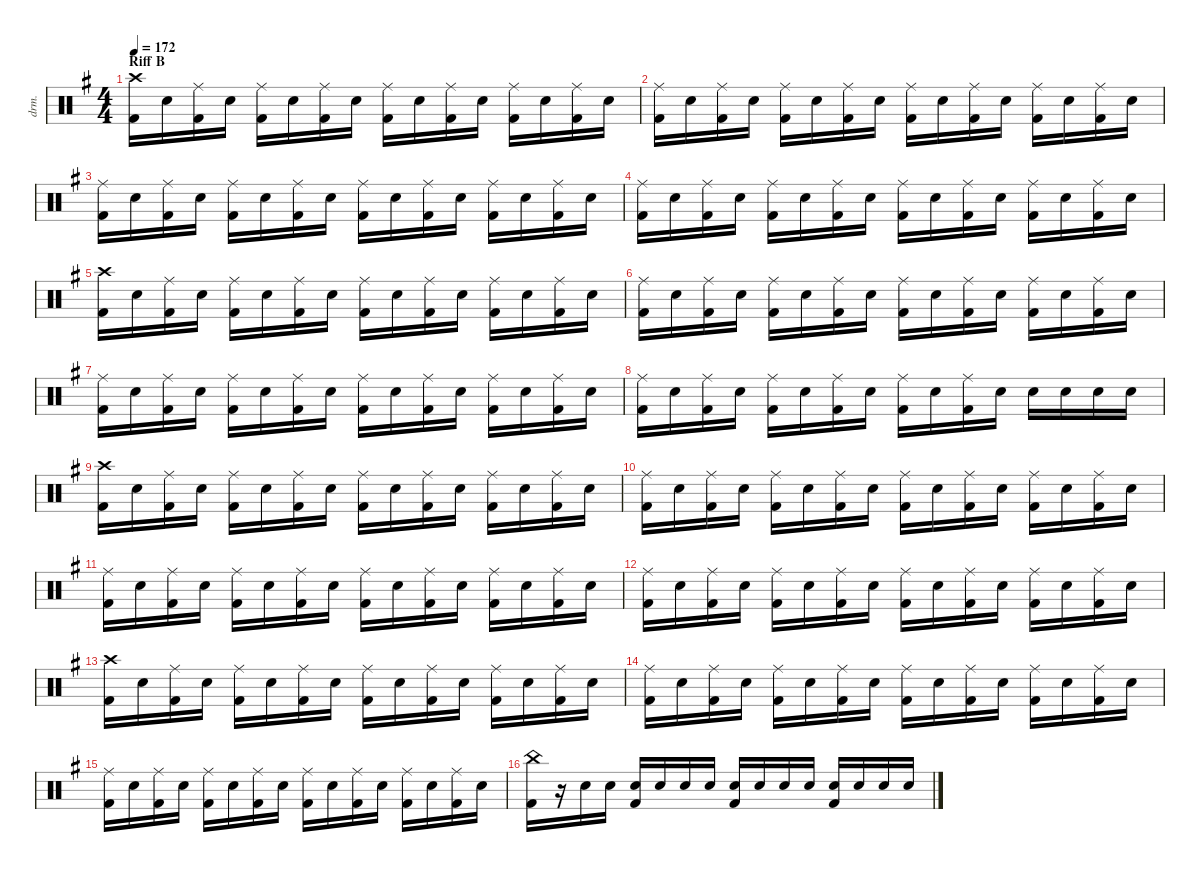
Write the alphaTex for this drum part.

\defaultSystemsLayout 4
\hideDynamics
\bracketExtendMode nobrackets
\otherSystemsTrackNameOrientation horizontal
\track ("Shinya" "drm.") {instrument percussion}
\staff {score}
\articulation defaults
\ts (4 4)
\section ("" "Riff B")
\tempo 172
\clef neutral
\ks eminor
("Kick (hit) 2"{acc forcenatural} "Crash high (hit)"{acc #}).16{dy fff beam Down} "Snare (hit) 2"{acc forcenatural}.16{beam Down} ("Kick (hit) 2"{acc forcenatural} "Ride (middle)"{acc #}).16{beam Down} "Snare (hit) 2"{acc forcenatural}.16{beam Down} ("Kick (hit) 2"{acc forcenatural} "Ride (middle)"{acc #}).16{beam Down} "Snare (hit) 2"{acc forcenatural}.16{beam Down} ("Kick (hit) 2"{acc forcenatural} "Ride (middle)"{acc #}).16{beam Down} "Snare (hit) 2"{acc forcenatural}.16{beam Down} ("Kick (hit) 2"{acc forcenatural} "Ride (middle)"{acc #}).16{beam Down} "Snare (hit) 2"{acc forcenatural}.16{beam Down} ("Kick (hit) 2"{acc forcenatural} "Ride (middle)"{acc #}).16{beam Down} "Snare (hit) 2"{acc forcenatural}.16{beam Down} ("Kick (hit) 2"{acc forcenatural} "Ride (middle)"{acc #}).16{beam Down} "Snare (hit) 2"{acc forcenatural}.16{beam Down} ("Kick (hit) 2"{acc forcenatural} "Ride (middle)"{acc #}).16{beam Down} "Snare (hit) 2"{acc forcenatural}.16{beam Down} |
("Kick (hit) 2"{acc forcenatural} "Ride (middle)"{acc #}).16{beam Down} "Snare (hit) 2"{acc forcenatural}.16{beam Down} ("Kick (hit) 2"{acc forcenatural} "Ride (middle)"{acc #}).16{beam Down} "Snare (hit) 2"{acc forcenatural}.16{beam Down} ("Kick (hit) 2"{acc forcenatural} "Ride (middle)"{acc #}).16{beam Down} "Snare (hit) 2"{acc forcenatural}.16{beam Down} ("Kick (hit) 2"{acc forcenatural} "Ride (middle)"{acc #}).16{beam Down} "Snare (hit) 2"{acc forcenatural}.16{beam Down} ("Kick (hit) 2"{acc forcenatural} "Ride (middle)"{acc #}).16{beam Down} "Snare (hit) 2"{acc forcenatural}.16{beam Down} ("Kick (hit) 2"{acc forcenatural} "Ride (middle)"{acc #}).16{beam Down} "Snare (hit) 2"{acc forcenatural}.16{beam Down} ("Kick (hit) 2"{acc forcenatural} "Ride (middle)"{acc #}).16{beam Down} "Snare (hit) 2"{acc forcenatural}.16{beam Down} ("Kick (hit) 2"{acc forcenatural} "Ride (middle)"{acc #}).16{beam Down} "Snare (hit) 2"{acc forcenatural}.16{beam Down} |
("Kick (hit) 2"{acc forcenatural} "Ride (middle)"{acc #}).16{beam Down} "Snare (hit) 2"{acc forcenatural}.16{beam Down} ("Kick (hit) 2"{acc forcenatural} "Ride (middle)"{acc #}).16{beam Down} "Snare (hit) 2"{acc forcenatural}.16{beam Down} ("Kick (hit) 2"{acc forcenatural} "Ride (middle)"{acc #}).16{beam Down} "Snare (hit) 2"{acc forcenatural}.16{beam Down} ("Kick (hit) 2"{acc forcenatural} "Ride (middle)"{acc #}).16{beam Down} "Snare (hit) 2"{acc forcenatural}.16{beam Down} ("Kick (hit) 2"{acc forcenatural} "Ride (middle)"{acc #}).16{beam Down} "Snare (hit) 2"{acc forcenatural}.16{beam Down} ("Kick (hit) 2"{acc forcenatural} "Ride (middle)"{acc #}).16{beam Down} "Snare (hit) 2"{acc forcenatural}.16{beam Down} ("Kick (hit) 2"{acc forcenatural} "Ride (middle)"{acc #}).16{beam Down} "Snare (hit) 2"{acc forcenatural}.16{beam Down} ("Kick (hit) 2"{acc forcenatural} "Ride (middle)"{acc #}).16{beam Down} "Snare (hit) 2"{acc forcenatural}.16{beam Down} |
("Kick (hit) 2"{acc forcenatural} "Ride (middle)"{acc #}).16{beam Down} "Snare (hit) 2"{acc forcenatural}.16{beam Down} ("Kick (hit) 2"{acc forcenatural} "Ride (middle)"{acc #}).16{beam Down} "Snare (hit) 2"{acc forcenatural}.16{beam Down} ("Kick (hit) 2"{acc forcenatural} "Ride (middle)"{acc #}).16{beam Down} "Snare (hit) 2"{acc forcenatural}.16{beam Down} ("Kick (hit) 2"{acc forcenatural} "Ride (middle)"{acc #}).16{beam Down} "Snare (hit) 2"{acc forcenatural}.16{beam Down} ("Kick (hit) 2"{acc forcenatural} "Ride (middle)"{acc #}).16{beam Down} "Snare (hit) 2"{acc forcenatural}.16{beam Down} ("Kick (hit) 2"{acc forcenatural} "Ride (middle)"{acc #}).16{beam Down} "Snare (hit) 2"{acc forcenatural}.16{beam Down} ("Kick (hit) 2"{acc forcenatural} "Ride (middle)"{acc #}).16{beam Down} "Snare (hit) 2"{acc forcenatural}.16{beam Down} ("Kick (hit) 2"{acc forcenatural} "Ride (middle)"{acc #}).16{beam Down} "Snare (hit) 2"{acc forcenatural}.16{beam Down} |
("Kick (hit) 2"{acc forcenatural} "Crash high (hit)"{acc #}).16{beam Down} "Snare (hit) 2"{acc forcenatural}.16{beam Down} ("Kick (hit) 2"{acc forcenatural} "Ride (middle)"{acc #}).16{beam Down} "Snare (hit) 2"{acc forcenatural}.16{beam Down} ("Kick (hit) 2"{acc forcenatural} "Ride (middle)"{acc #}).16{beam Down} "Snare (hit) 2"{acc forcenatural}.16{beam Down} ("Kick (hit) 2"{acc forcenatural} "Ride (middle)"{acc #}).16{beam Down} "Snare (hit) 2"{acc forcenatural}.16{beam Down} ("Kick (hit) 2"{acc forcenatural} "Ride (middle)"{acc #}).16{beam Down} "Snare (hit) 2"{acc forcenatural}.16{beam Down} ("Kick (hit) 2"{acc forcenatural} "Ride (middle)"{acc #}).16{beam Down} "Snare (hit) 2"{acc forcenatural}.16{beam Down} ("Kick (hit) 2"{acc forcenatural} "Ride (middle)"{acc #}).16{beam Down} "Snare (hit) 2"{acc forcenatural}.16{beam Down} ("Kick (hit) 2"{acc forcenatural} "Ride (middle)"{acc #}).16{beam Down} "Snare (hit) 2"{acc forcenatural}.16{beam Down} |
("Kick (hit) 2"{acc forcenatural} "Ride (middle)"{acc #}).16{beam Down} "Snare (hit) 2"{acc forcenatural}.16{beam Down} ("Kick (hit) 2"{acc forcenatural} "Ride (middle)"{acc #}).16{beam Down} "Snare (hit) 2"{acc forcenatural}.16{beam Down} ("Kick (hit) 2"{acc forcenatural} "Ride (middle)"{acc #}).16{beam Down} "Snare (hit) 2"{acc forcenatural}.16{beam Down} ("Kick (hit) 2"{acc forcenatural} "Ride (middle)"{acc #}).16{beam Down} "Snare (hit) 2"{acc forcenatural}.16{beam Down} ("Kick (hit) 2"{acc forcenatural} "Ride (middle)"{acc #}).16{beam Down} "Snare (hit) 2"{acc forcenatural}.16{beam Down} ("Kick (hit) 2"{acc forcenatural} "Ride (middle)"{acc #}).16{beam Down} "Snare (hit) 2"{acc forcenatural}.16{beam Down} ("Kick (hit) 2"{acc forcenatural} "Ride (middle)"{acc #}).16{beam Down} "Snare (hit) 2"{acc forcenatural}.16{beam Down} ("Kick (hit) 2"{acc forcenatural} "Ride (middle)"{acc #}).16{beam Down} "Snare (hit) 2"{acc forcenatural}.16{beam Down} |
("Kick (hit) 2"{acc forcenatural} "Ride (middle)"{acc #}).16{beam Down} "Snare (hit) 2"{acc forcenatural}.16{beam Down} ("Kick (hit) 2"{acc forcenatural} "Ride (middle)"{acc #}).16{beam Down} "Snare (hit) 2"{acc forcenatural}.16{beam Down} ("Kick (hit) 2"{acc forcenatural} "Ride (middle)"{acc #}).16{beam Down} "Snare (hit) 2"{acc forcenatural}.16{beam Down} ("Kick (hit) 2"{acc forcenatural} "Ride (middle)"{acc #}).16{beam Down} "Snare (hit) 2"{acc forcenatural}.16{beam Down} ("Kick (hit) 2"{acc forcenatural} "Ride (middle)"{acc #}).16{beam Down} "Snare (hit) 2"{acc forcenatural}.16{beam Down} ("Kick (hit) 2"{acc forcenatural} "Ride (middle)"{acc #}).16{beam Down} "Snare (hit) 2"{acc forcenatural}.16{beam Down} ("Kick (hit) 2"{acc forcenatural} "Ride (middle)"{acc #}).16{beam Down} "Snare (hit) 2"{acc forcenatural}.16{beam Down} ("Kick (hit) 2"{acc forcenatural} "Ride (middle)"{acc #}).16{beam Down} "Snare (hit) 2"{acc forcenatural}.16{beam Down} |
("Kick (hit) 2"{acc forcenatural} "Ride (middle)"{acc #}).16{beam Down} "Snare (hit) 2"{acc forcenatural}.16{beam Down} ("Kick (hit) 2"{acc forcenatural} "Ride (middle)"{acc #}).16{beam Down} "Snare (hit) 2"{acc forcenatural}.16{beam Down} ("Kick (hit) 2"{acc forcenatural} "Ride (middle)"{acc #}).16{beam Down} "Snare (hit) 2"{acc forcenatural}.16{beam Down} ("Kick (hit) 2"{acc forcenatural} "Ride (middle)"{acc #}).16{beam Down} "Snare (hit) 2"{acc forcenatural}.16{beam Down} ("Kick (hit) 2"{acc forcenatural} "Ride (middle)"{acc #}).16{beam Down} "Snare (hit) 2"{acc forcenatural}.16{beam Down} ("Kick (hit) 2"{acc forcenatural} "Ride (middle)"{acc #}).16{beam Down} "Snare (hit) 2"{acc forcenatural}.16{beam Down} "Snare (hit) 2"{acc forcenatural}.16{beam Down} "Snare (hit) 2"{acc forcenatural}.16{beam Down} "Snare (hit) 2"{acc forcenatural}.16{beam Down} "Snare (hit) 2"{acc forcenatural}.16{beam Down} |
("Kick (hit) 2"{acc forcenatural} "Crash high (hit)"{acc #}).16{beam Down} "Snare (hit) 2"{acc forcenatural}.16{beam Down} ("Kick (hit) 2"{acc forcenatural} "Ride (middle)"{acc #}).16{beam Down} "Snare (hit) 2"{acc forcenatural}.16{beam Down} ("Kick (hit) 2"{acc forcenatural} "Ride (middle)"{acc #}).16{beam Down} "Snare (hit) 2"{acc forcenatural}.16{beam Down} ("Kick (hit) 2"{acc forcenatural} "Ride (middle)"{acc #}).16{beam Down} "Snare (hit) 2"{acc forcenatural}.16{beam Down} ("Kick (hit) 2"{acc forcenatural} "Ride (middle)"{acc #}).16{beam Down} "Snare (hit) 2"{acc forcenatural}.16{beam Down} ("Kick (hit) 2"{acc forcenatural} "Ride (middle)"{acc #}).16{beam Down} "Snare (hit) 2"{acc forcenatural}.16{beam Down} ("Kick (hit) 2"{acc forcenatural} "Ride (middle)"{acc #}).16{beam Down} "Snare (hit) 2"{acc forcenatural}.16{beam Down} ("Kick (hit) 2"{acc forcenatural} "Ride (middle)"{acc #}).16{beam Down} "Snare (hit) 2"{acc forcenatural}.16{beam Down} |
("Kick (hit) 2"{acc forcenatural} "Ride (middle)"{acc #}).16{beam Down} "Snare (hit) 2"{acc forcenatural}.16{beam Down} ("Kick (hit) 2"{acc forcenatural} "Ride (middle)"{acc #}).16{beam Down} "Snare (hit) 2"{acc forcenatural}.16{beam Down} ("Kick (hit) 2"{acc forcenatural} "Ride (middle)"{acc #}).16{beam Down} "Snare (hit) 2"{acc forcenatural}.16{beam Down} ("Kick (hit) 2"{acc forcenatural} "Ride (middle)"{acc #}).16{beam Down} "Snare (hit) 2"{acc forcenatural}.16{beam Down} ("Kick (hit) 2"{acc forcenatural} "Ride (middle)"{acc #}).16{beam Down} "Snare (hit) 2"{acc forcenatural}.16{beam Down} ("Kick (hit) 2"{acc forcenatural} "Ride (middle)"{acc #}).16{beam Down} "Snare (hit) 2"{acc forcenatural}.16{beam Down} ("Kick (hit) 2"{acc forcenatural} "Ride (middle)"{acc #}).16{beam Down} "Snare (hit) 2"{acc forcenatural}.16{beam Down} ("Kick (hit) 2"{acc forcenatural} "Ride (middle)"{acc #}).16{beam Down} "Snare (hit) 2"{acc forcenatural}.16{beam Down} |
("Kick (hit) 2"{acc forcenatural} "Ride (middle)"{acc #}).16{beam Down} "Snare (hit) 2"{acc forcenatural}.16{beam Down} ("Kick (hit) 2"{acc forcenatural} "Ride (middle)"{acc #}).16{beam Down} "Snare (hit) 2"{acc forcenatural}.16{beam Down} ("Kick (hit) 2"{acc forcenatural} "Ride (middle)"{acc #}).16{beam Down} "Snare (hit) 2"{acc forcenatural}.16{beam Down} ("Kick (hit) 2"{acc forcenatural} "Ride (middle)"{acc #}).16{beam Down} "Snare (hit) 2"{acc forcenatural}.16{beam Down} ("Kick (hit) 2"{acc forcenatural} "Ride (middle)"{acc #}).16{beam Down} "Snare (hit) 2"{acc forcenatural}.16{beam Down} ("Kick (hit) 2"{acc forcenatural} "Ride (middle)"{acc #}).16{beam Down} "Snare (hit) 2"{acc forcenatural}.16{beam Down} ("Kick (hit) 2"{acc forcenatural} "Ride (middle)"{acc #}).16{beam Down} "Snare (hit) 2"{acc forcenatural}.16{beam Down} ("Kick (hit) 2"{acc forcenatural} "Ride (middle)"{acc #}).16{beam Down} "Snare (hit) 2"{acc forcenatural}.16{beam Down} |
("Kick (hit) 2"{acc forcenatural} "Ride (middle)"{acc #}).16{beam Down} "Snare (hit) 2"{acc forcenatural}.16{beam Down} ("Kick (hit) 2"{acc forcenatural} "Ride (middle)"{acc #}).16{beam Down} "Snare (hit) 2"{acc forcenatural}.16{beam Down} ("Kick (hit) 2"{acc forcenatural} "Ride (middle)"{acc #}).16{beam Down} "Snare (hit) 2"{acc forcenatural}.16{beam Down} ("Kick (hit) 2"{acc forcenatural} "Ride (middle)"{acc #}).16{beam Down} "Snare (hit) 2"{acc forcenatural}.16{beam Down} ("Kick (hit) 2"{acc forcenatural} "Ride (middle)"{acc #}).16{beam Down} "Snare (hit) 2"{acc forcenatural}.16{beam Down} ("Kick (hit) 2"{acc forcenatural} "Ride (middle)"{acc #}).16{beam Down} "Snare (hit) 2"{acc forcenatural}.16{beam Down} ("Kick (hit) 2"{acc forcenatural} "Ride (middle)"{acc #}).16{beam Down} "Snare (hit) 2"{acc forcenatural}.16{beam Down} ("Kick (hit) 2"{acc forcenatural} "Ride (middle)"{acc #}).16{beam Down} "Snare (hit) 2"{acc forcenatural}.16{beam Down} |
("Kick (hit) 2"{acc forcenatural} "Crash high (hit)"{acc #}).16{beam Down} "Snare (hit) 2"{acc forcenatural}.16{beam Down} ("Kick (hit) 2"{acc forcenatural} "Ride (middle)"{acc #}).16{beam Down} "Snare (hit) 2"{acc forcenatural}.16{beam Down} ("Kick (hit) 2"{acc forcenatural} "Ride (middle)"{acc #}).16{beam Down} "Snare (hit) 2"{acc forcenatural}.16{beam Down} ("Kick (hit) 2"{acc forcenatural} "Ride (middle)"{acc #}).16{beam Down} "Snare (hit) 2"{acc forcenatural}.16{beam Down} ("Kick (hit) 2"{acc forcenatural} "Ride (middle)"{acc #}).16{beam Down} "Snare (hit) 2"{acc forcenatural}.16{beam Down} ("Kick (hit) 2"{acc forcenatural} "Ride (middle)"{acc #}).16{beam Down} "Snare (hit) 2"{acc forcenatural}.16{beam Down} ("Kick (hit) 2"{acc forcenatural} "Ride (middle)"{acc #}).16{beam Down} "Snare (hit) 2"{acc forcenatural}.16{beam Down} ("Kick (hit) 2"{acc forcenatural} "Ride (middle)"{acc #}).16{beam Down} "Snare (hit) 2"{acc forcenatural}.16{beam Down} |
("Kick (hit) 2"{acc forcenatural} "Ride (middle)"{acc #}).16{beam Down} "Snare (hit) 2"{acc forcenatural}.16{beam Down} ("Kick (hit) 2"{acc forcenatural} "Ride (middle)"{acc #}).16{beam Down} "Snare (hit) 2"{acc forcenatural}.16{beam Down} ("Kick (hit) 2"{acc forcenatural} "Ride (middle)"{acc #}).16{beam Down} "Snare (hit) 2"{acc forcenatural}.16{beam Down} ("Kick (hit) 2"{acc forcenatural} "Ride (middle)"{acc #}).16{beam Down} "Snare (hit) 2"{acc forcenatural}.16{beam Down} ("Kick (hit) 2"{acc forcenatural} "Ride (middle)"{acc #}).16{beam Down} "Snare (hit) 2"{acc forcenatural}.16{beam Down} ("Kick (hit) 2"{acc forcenatural} "Ride (middle)"{acc #}).16{beam Down} "Snare (hit) 2"{acc forcenatural}.16{beam Down} ("Kick (hit) 2"{acc forcenatural} "Ride (middle)"{acc #}).16{beam Down} "Snare (hit) 2"{acc forcenatural}.16{beam Down} ("Kick (hit) 2"{acc forcenatural} "Ride (middle)"{acc #}).16{beam Down} "Snare (hit) 2"{acc forcenatural}.16{beam Down} |
("Kick (hit) 2"{acc forcenatural} "Ride (middle)"{acc #}).16{beam Down} "Snare (hit) 2"{acc forcenatural}.16{beam Down} ("Kick (hit) 2"{acc forcenatural} "Ride (middle)"{acc #}).16{beam Down} "Snare (hit) 2"{acc forcenatural}.16{beam Down} ("Kick (hit) 2"{acc forcenatural} "Ride (middle)"{acc #}).16{beam Down} "Snare (hit) 2"{acc forcenatural}.16{beam Down} ("Kick (hit) 2"{acc forcenatural} "Ride (middle)"{acc #}).16{beam Down} "Snare (hit) 2"{acc forcenatural}.16{beam Down} ("Kick (hit) 2"{acc forcenatural} "Ride (middle)"{acc #}).16{beam Down} "Snare (hit) 2"{acc forcenatural}.16{beam Down} ("Kick (hit) 2"{acc forcenatural} "Ride (middle)"{acc #}).16{beam Down} "Snare (hit) 2"{acc forcenatural}.16{beam Down} ("Kick (hit) 2"{acc forcenatural} "Ride (middle)"{acc #}).16{beam Down} "Snare (hit) 2"{acc forcenatural}.16{beam Down} ("Kick (hit) 2"{acc forcenatural} "Ride (middle)"{acc #}).16{beam Down} "Snare (hit) 2"{acc forcenatural}.16{beam Down} |
("Kick (hit) 2"{acc forcenatural} "China (hit)"{acc forcenatural}).16{beam Down} r.16{beam Down} "Snare (hit) 2"{acc forcenatural}.16{beam Down} "Snare (hit) 2"{acc forcenatural}.16{beam Down} ("Kick (hit) 2"{acc forcenatural} "Snare (hit) 2"{acc forcenatural}).16{beam Up} "Snare (hit) 2"{acc forcenatural}.16{beam Up} "Snare (hit) 2"{acc forcenatural}.16{beam Up} "Snare (hit) 2"{acc forcenatural}.16{beam Up} ("Kick (hit) 2"{acc forcenatural} "Snare (hit) 2"{acc forcenatural}).16{beam Up} "Snare (hit) 2"{acc forcenatural}.16{beam Up} "Snare (hit) 2"{acc forcenatural}.16{beam Up} "Snare (hit) 2"{acc forcenatural}.16{beam Up} ("Kick (hit) 2"{acc forcenatural} "Snare (hit) 2"{acc forcenatural}).16{beam Up} "Snare (hit) 2"{acc forcenatural}.16{beam Up} "Snare (hit) 2"{acc forcenatural}.16{beam Up} "Snare (hit) 2"{acc forcenatural}.16{beam Up}
